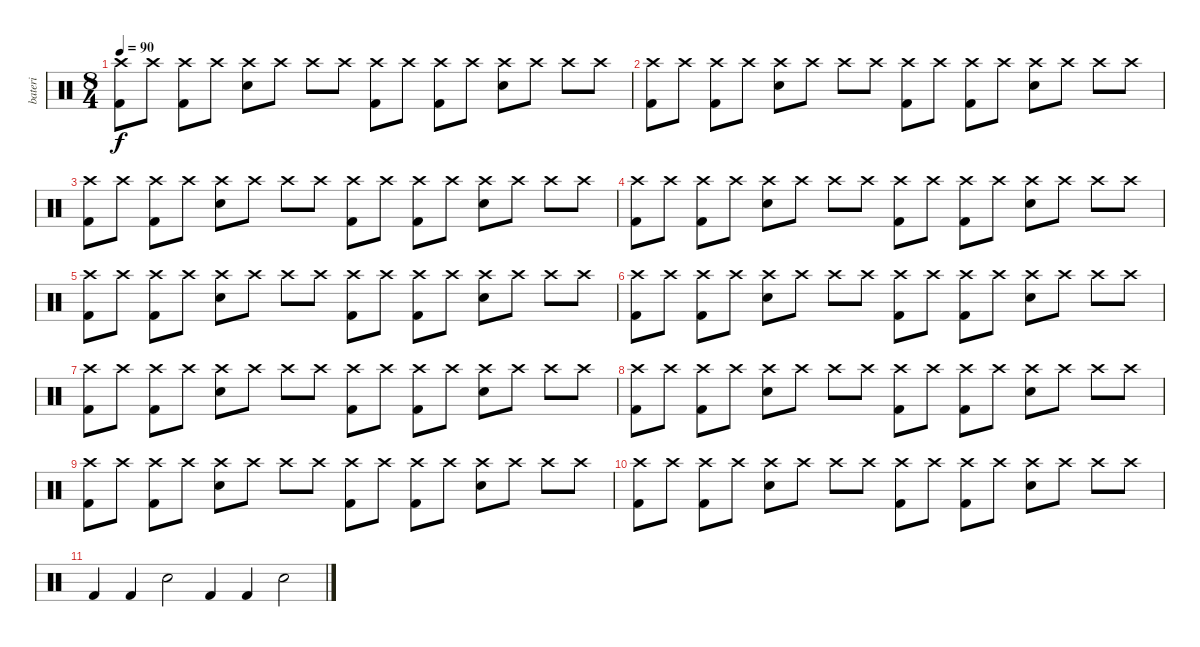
\track ("bateri" "bateri") {instrument percussion}
\staff {score}
\articulation defaults
\ts (8 4)
\tempo 90
\clef neutral
\ks c
("Kick (hit) 2" "Crash high (hit)").8{dy f} "Crash high (hit)".8 ("Crash high (hit)" "Kick (hit) 2").8 "Crash high (hit)".8 ("Crash high (hit)" "Snare (hit) 2").8 "Crash high (hit)".8 "Crash high (hit)".8 "Crash high (hit)".8 ("Kick (hit) 2" "Crash high (hit)").8 "Crash high (hit)".8 ("Crash high (hit)" "Kick (hit) 2").8 "Crash high (hit)".8 ("Crash high (hit)" "Snare (hit) 2").8 "Crash high (hit)".8 "Crash high (hit)".8 "Crash high (hit)".8 |
("Kick (hit) 2" "Crash high (hit)").8 "Crash high (hit)".8 ("Crash high (hit)" "Kick (hit) 2").8 "Crash high (hit)".8 ("Crash high (hit)" "Snare (hit) 2").8 "Crash high (hit)".8 "Crash high (hit)".8 "Crash high (hit)".8 ("Kick (hit) 2" "Crash high (hit)").8 "Crash high (hit)".8 ("Crash high (hit)" "Kick (hit) 2").8 "Crash high (hit)".8 ("Crash high (hit)" "Snare (hit) 2").8 "Crash high (hit)".8 "Crash high (hit)".8 "Crash high (hit)".8 |
("Kick (hit) 2" "Crash high (hit)").8 "Crash high (hit)".8 ("Crash high (hit)" "Kick (hit) 2").8 "Crash high (hit)".8 ("Crash high (hit)" "Snare (hit) 2").8 "Crash high (hit)".8 "Crash high (hit)".8 "Crash high (hit)".8 ("Kick (hit) 2" "Crash high (hit)").8 "Crash high (hit)".8 ("Crash high (hit)" "Kick (hit) 2").8 "Crash high (hit)".8 ("Crash high (hit)" "Snare (hit) 2").8 "Crash high (hit)".8 "Crash high (hit)".8 "Crash high (hit)".8 |
("Kick (hit) 2" "Crash high (hit)").8 "Crash high (hit)".8 ("Crash high (hit)" "Kick (hit) 2").8 "Crash high (hit)".8 ("Crash high (hit)" "Snare (hit) 2").8 "Crash high (hit)".8 "Crash high (hit)".8 "Crash high (hit)".8 ("Kick (hit) 2" "Crash high (hit)").8 "Crash high (hit)".8 ("Crash high (hit)" "Kick (hit) 2").8 "Crash high (hit)".8 ("Crash high (hit)" "Snare (hit) 2").8 "Crash high (hit)".8 "Crash high (hit)".8 "Crash high (hit)".8 |
("Kick (hit) 2" "Crash high (hit)").8 "Crash high (hit)".8 ("Crash high (hit)" "Kick (hit) 2").8 "Crash high (hit)".8 ("Crash high (hit)" "Snare (hit) 2").8 "Crash high (hit)".8 "Crash high (hit)".8 "Crash high (hit)".8 ("Kick (hit) 2" "Crash high (hit)").8 "Crash high (hit)".8 ("Crash high (hit)" "Kick (hit) 2").8 "Crash high (hit)".8 ("Crash high (hit)" "Snare (hit) 2").8 "Crash high (hit)".8 "Crash high (hit)".8 "Crash high (hit)".8 |
("Kick (hit) 2" "Crash high (hit)").8 "Crash high (hit)".8 ("Crash high (hit)" "Kick (hit) 2").8 "Crash high (hit)".8 ("Crash high (hit)" "Snare (hit) 2").8 "Crash high (hit)".8 "Crash high (hit)".8 "Crash high (hit)".8 ("Kick (hit) 2" "Crash high (hit)").8 "Crash high (hit)".8 ("Crash high (hit)" "Kick (hit) 2").8 "Crash high (hit)".8 ("Crash high (hit)" "Snare (hit) 2").8 "Crash high (hit)".8 "Crash high (hit)".8 "Crash high (hit)".8 |
("Kick (hit) 2" "Crash high (hit)").8 "Crash high (hit)".8 ("Crash high (hit)" "Kick (hit) 2").8 "Crash high (hit)".8 ("Crash high (hit)" "Snare (hit) 2").8 "Crash high (hit)".8 "Crash high (hit)".8 "Crash high (hit)".8 ("Kick (hit) 2" "Crash high (hit)").8 "Crash high (hit)".8 ("Crash high (hit)" "Kick (hit) 2").8 "Crash high (hit)".8 ("Crash high (hit)" "Snare (hit) 2").8 "Crash high (hit)".8 "Crash high (hit)".8 "Crash high (hit)".8 |
("Kick (hit) 2" "Crash high (hit)").8 "Crash high (hit)".8 ("Crash high (hit)" "Kick (hit) 2").8 "Crash high (hit)".8 ("Crash high (hit)" "Snare (hit) 2").8 "Crash high (hit)".8 "Crash high (hit)".8 "Crash high (hit)".8 ("Kick (hit) 2" "Crash high (hit)").8 "Crash high (hit)".8 ("Crash high (hit)" "Kick (hit) 2").8 "Crash high (hit)".8 ("Crash high (hit)" "Snare (hit) 2").8 "Crash high (hit)".8 "Crash high (hit)".8 "Crash high (hit)".8 |
("Kick (hit) 2" "Crash high (hit)").8 "Crash high (hit)".8 ("Crash high (hit)" "Kick (hit) 2").8 "Crash high (hit)".8 ("Crash high (hit)" "Snare (hit) 2").8 "Crash high (hit)".8 "Crash high (hit)".8 "Crash high (hit)".8 ("Kick (hit) 2" "Crash high (hit)").8 "Crash high (hit)".8 ("Crash high (hit)" "Kick (hit) 2").8 "Crash high (hit)".8 ("Crash high (hit)" "Snare (hit) 2").8 "Crash high (hit)".8 "Crash high (hit)".8 "Crash high (hit)".8 |
("Kick (hit) 2" "Crash high (hit)").8 "Crash high (hit)".8 ("Crash high (hit)" "Kick (hit) 2").8 "Crash high (hit)".8 ("Crash high (hit)" "Snare (hit) 2").8 "Crash high (hit)".8 "Crash high (hit)".8 "Crash high (hit)".8 ("Kick (hit) 2" "Crash high (hit)").8 "Crash high (hit)".8 ("Crash high (hit)" "Kick (hit) 2").8 "Crash high (hit)".8 ("Crash high (hit)" "Snare (hit) 2").8 "Crash high (hit)".8 "Crash high (hit)".8 "Crash high (hit)".8 |
"Kick (hit) 2".4 "Kick (hit) 2".4 "Snare (hit) 2".2 "Kick (hit) 2".4 "Kick (hit) 2".4 "Snare (hit) 2".2
